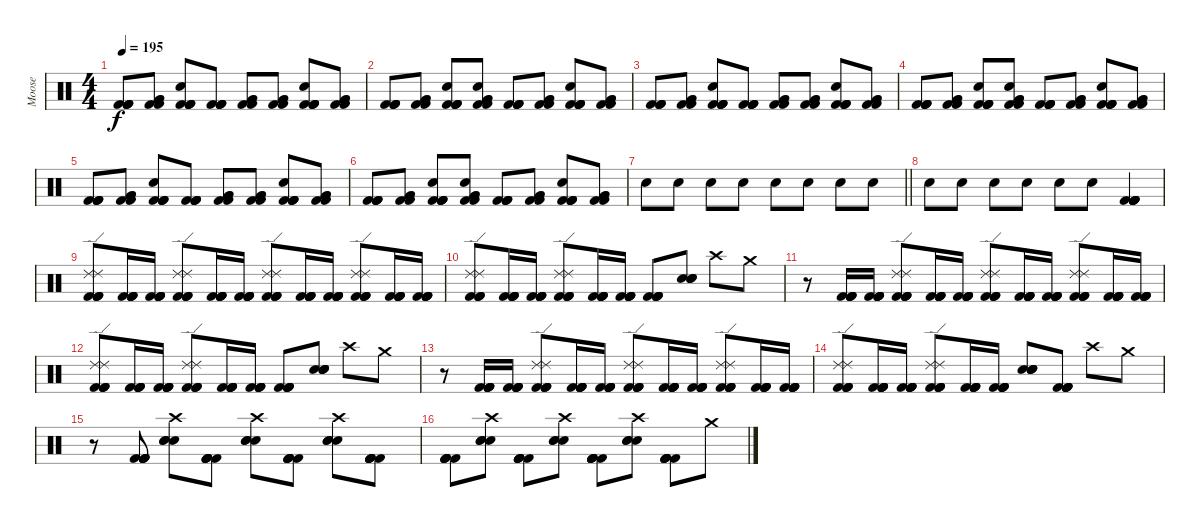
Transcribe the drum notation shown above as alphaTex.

\track ("Moose" "Moose") {instrument percussion}
\staff {score}
\articulation defaults
\ts (4 4)
\tempo 195
\clef neutral
\ks c
("Kick (hit) 2" "Kick (hit) 2" "Kick (hit) 2" "Kick (hit) 2").8{dy f} ("Kick (hit) 2" "Kick (hit) 2" "Very Low Tom (hit)" "Very Low Tom (hit)").8 ("Kick (hit) 2" "Kick (hit) 2" "Kick (hit) 2" "Kick (hit) 2" "Hand Clap (hit)").8 ("Kick (hit) 2" "Kick (hit) 2" "Kick (hit) 2" "Kick (hit) 2").8 ("Kick (hit) 2" "Kick (hit) 2" "Very Low Tom (hit)" "Very Low Tom (hit)").8 ("Kick (hit) 2" "Kick (hit) 2" "Very Low Tom (hit)" "Very Low Tom (hit)").8 ("Kick (hit) 2" "Kick (hit) 2" "Kick (hit) 2" "Kick (hit) 2" "Hand Clap (hit)").8 ("Kick (hit) 2" "Kick (hit) 2" "Very Low Tom (hit)" "Very Low Tom (hit)").8 |
("Kick (hit) 2" "Kick (hit) 2" "Kick (hit) 2" "Kick (hit) 2").8 ("Kick (hit) 2" "Kick (hit) 2" "Very Low Tom (hit)" "Very Low Tom (hit)").8 ("Kick (hit) 2" "Kick (hit) 2" "Kick (hit) 2" "Kick (hit) 2" "Hand Clap (hit)").8 ("Kick (hit) 2" "Kick (hit) 2" "Very Low Tom (hit)" "Very Low Tom (hit)" "Hand Clap (hit)").8 ("Kick (hit) 2" "Kick (hit) 2" "Kick (hit) 2" "Kick (hit) 2").8 ("Kick (hit) 2" "Kick (hit) 2" "Very Low Tom (hit)" "Very Low Tom (hit)").8 ("Kick (hit) 2" "Kick (hit) 2" "Kick (hit) 2" "Kick (hit) 2" "Hand Clap (hit)").8 ("Kick (hit) 2" "Kick (hit) 2" "Very Low Tom (hit)" "Very Low Tom (hit)").8 |
("Kick (hit) 2" "Kick (hit) 2" "Kick (hit) 2" "Kick (hit) 2").8 ("Kick (hit) 2" "Kick (hit) 2" "Very Low Tom (hit)" "Very Low Tom (hit)").8 ("Kick (hit) 2" "Kick (hit) 2" "Kick (hit) 2" "Kick (hit) 2" "Hand Clap (hit)").8 ("Kick (hit) 2" "Kick (hit) 2" "Kick (hit) 2" "Kick (hit) 2").8 ("Kick (hit) 2" "Kick (hit) 2" "Very Low Tom (hit)" "Very Low Tom (hit)").8 ("Kick (hit) 2" "Kick (hit) 2" "Very Low Tom (hit)" "Very Low Tom (hit)").8 ("Kick (hit) 2" "Kick (hit) 2" "Kick (hit) 2" "Kick (hit) 2" "Hand Clap (hit)").8 ("Kick (hit) 2" "Kick (hit) 2" "Very Low Tom (hit)" "Very Low Tom (hit)").8 |
("Kick (hit) 2" "Kick (hit) 2" "Kick (hit) 2" "Kick (hit) 2").8 ("Kick (hit) 2" "Kick (hit) 2" "Very Low Tom (hit)" "Very Low Tom (hit)").8 ("Kick (hit) 2" "Kick (hit) 2" "Kick (hit) 2" "Kick (hit) 2" "Hand Clap (hit)").8 ("Kick (hit) 2" "Kick (hit) 2" "Very Low Tom (hit)" "Very Low Tom (hit)" "Hand Clap (hit)").8 ("Kick (hit) 2" "Kick (hit) 2" "Kick (hit) 2" "Kick (hit) 2").8 ("Kick (hit) 2" "Kick (hit) 2" "Very Low Tom (hit)" "Very Low Tom (hit)").8 ("Kick (hit) 2" "Kick (hit) 2" "Kick (hit) 2" "Kick (hit) 2" "Hand Clap (hit)").8 ("Kick (hit) 2" "Kick (hit) 2" "Very Low Tom (hit)" "Very Low Tom (hit)").8 |
("Kick (hit) 2" "Kick (hit) 2" "Kick (hit) 2" "Kick (hit) 2").8 ("Kick (hit) 2" "Kick (hit) 2" "Very Low Tom (hit)" "Very Low Tom (hit)").8 ("Kick (hit) 2" "Kick (hit) 2" "Kick (hit) 2" "Kick (hit) 2" "Hand Clap (hit)").8 ("Kick (hit) 2" "Kick (hit) 2" "Kick (hit) 2" "Kick (hit) 2").8 ("Kick (hit) 2" "Kick (hit) 2" "Very Low Tom (hit)" "Very Low Tom (hit)").8 ("Kick (hit) 2" "Kick (hit) 2" "Very Low Tom (hit)" "Very Low Tom (hit)").8 ("Kick (hit) 2" "Kick (hit) 2" "Kick (hit) 2" "Kick (hit) 2" "Hand Clap (hit)").8 ("Kick (hit) 2" "Kick (hit) 2" "Very Low Tom (hit)" "Very Low Tom (hit)").8 |
("Kick (hit) 2" "Kick (hit) 2" "Kick (hit) 2" "Kick (hit) 2").8 ("Kick (hit) 2" "Kick (hit) 2" "Very Low Tom (hit)" "Very Low Tom (hit)").8 ("Kick (hit) 2" "Kick (hit) 2" "Kick (hit) 2" "Kick (hit) 2" "Hand Clap (hit)").8 ("Kick (hit) 2" "Kick (hit) 2" "Very Low Tom (hit)" "Very Low Tom (hit)" "Hand Clap (hit)").8 ("Kick (hit) 2" "Kick (hit) 2" "Kick (hit) 2" "Kick (hit) 2").8 ("Kick (hit) 2" "Kick (hit) 2" "Very Low Tom (hit)" "Very Low Tom (hit)").8 ("Kick (hit) 2" "Kick (hit) 2" "Kick (hit) 2" "Kick (hit) 2" "Hand Clap (hit)").8 ("Kick (hit) 2" "Kick (hit) 2" "Very Low Tom (hit)" "Very Low Tom (hit)").8 |
\barLineRight lightlight "Electric Snare (hit)".8 "Electric Snare (hit)".8 "Electric Snare (hit)".8 "Electric Snare (hit)".8 "Electric Snare (hit)".8 "Electric Snare (hit)".8 "Electric Snare (hit)".8 "Electric Snare (hit)".8
|
"Electric Snare (hit)".8 "Electric Snare (hit)".8 "Electric Snare (hit)".8 "Electric Snare (hit)".8 "Electric Snare (hit)".8 "Electric Snare (hit)".8 ("Kick (hit) 2" "Kick (hit) 2" "Kick (hit) 2" "Kick (hit) 2" "Kick (hit) 2" "Kick (hit) 2").4 |
("Kick (hit) 2" "Kick (hit) 2" "Kick (hit) 2" "Kick (hit) 2" "Ride (edge) 2" "Ride (edge) 2").8 ("Kick (hit) 2" "Kick (hit) 2" "Kick (hit) 2" "Kick (hit) 2" "Kick (hit) 2").16 ("Kick (hit) 2" "Kick (hit) 2" "Kick (hit) 2" "Kick (hit) 2" "Kick (hit) 2").16 ("Kick (hit) 2" "Kick (hit) 2" "Kick (hit) 2" "Kick (hit) 2" "Ride (edge) 2" "Ride (edge) 2").8 ("Kick (hit) 2" "Kick (hit) 2" "Kick (hit) 2" "Kick (hit) 2" "Kick (hit) 2").16 ("Kick (hit) 2" "Kick (hit) 2" "Kick (hit) 2" "Kick (hit) 2" "Kick (hit) 2").16 ("Kick (hit) 2" "Kick (hit) 2" "Kick (hit) 2" "Kick (hit) 2" "Ride (edge) 2" "Ride (edge) 2").8 ("Kick (hit) 2" "Kick (hit) 2" "Kick (hit) 2" "Kick (hit) 2" "Kick (hit) 2").16 ("Kick (hit) 2" "Kick (hit) 2" "Kick (hit) 2" "Kick (hit) 2" "Kick (hit) 2").16 ("Kick (hit) 2" "Kick (hit) 2" "Kick (hit) 2" "Kick (hit) 2" "Ride (edge) 2" "Ride (edge) 2").8 ("Kick (hit) 2" "Kick (hit) 2" "Kick (hit) 2" "Kick (hit) 2" "Kick (hit) 2").16 ("Kick (hit) 2" "Kick (hit) 2" "Kick (hit) 2" "Kick (hit) 2" "Kick (hit) 2").16 |
("Kick (hit) 2" "Kick (hit) 2" "Kick (hit) 2" "Kick (hit) 2" "Ride (edge) 2" "Ride (edge) 2").8 ("Kick (hit) 2" "Kick (hit) 2" "Kick (hit) 2" "Kick (hit) 2" "Kick (hit) 2").16 ("Kick (hit) 2" "Kick (hit) 2" "Kick (hit) 2" "Kick (hit) 2" "Kick (hit) 2").16 ("Kick (hit) 2" "Kick (hit) 2" "Kick (hit) 2" "Kick (hit) 2" "Ride (edge) 2" "Ride (edge) 2").8 ("Kick (hit) 2" "Kick (hit) 2" "Kick (hit) 2" "Kick (hit) 2" "Kick (hit) 2").16 ("Kick (hit) 2" "Kick (hit) 2" "Kick (hit) 2" "Kick (hit) 2" "Kick (hit) 2").16 ("Kick (hit) 2" "Kick (hit) 2" "Kick (hit) 2" "Kick (hit) 2" "Kick (hit) 2").8 ("Electric Snare (hit)" "Electric Snare (hit)" "Electric Snare (hit)" "Electric Snare (hit)").8 "Crash high (hit)".8 "Crash medium (hit)".8 |
r.8 ("Kick (hit) 2" "Kick (hit) 2" "Kick (hit) 2" "Kick (hit) 2" "Kick (hit) 2").16 ("Kick (hit) 2" "Kick (hit) 2" "Kick (hit) 2" "Kick (hit) 2" "Kick (hit) 2").16 ("Kick (hit) 2" "Kick (hit) 2" "Kick (hit) 2" "Kick (hit) 2" "Ride (edge) 2" "Ride (edge) 2").8 ("Kick (hit) 2" "Kick (hit) 2" "Kick (hit) 2" "Kick (hit) 2" "Kick (hit) 2").16 ("Kick (hit) 2" "Kick (hit) 2" "Kick (hit) 2" "Kick (hit) 2" "Kick (hit) 2").16 ("Kick (hit) 2" "Kick (hit) 2" "Kick (hit) 2" "Kick (hit) 2" "Ride (edge) 2" "Ride (edge) 2").8 ("Kick (hit) 2" "Kick (hit) 2" "Kick (hit) 2" "Kick (hit) 2" "Kick (hit) 2").16 ("Kick (hit) 2" "Kick (hit) 2" "Kick (hit) 2" "Kick (hit) 2" "Kick (hit) 2").16 ("Kick (hit) 2" "Kick (hit) 2" "Kick (hit) 2" "Kick (hit) 2" "Ride (edge) 2" "Ride (edge) 2").8 ("Kick (hit) 2" "Kick (hit) 2" "Kick (hit) 2" "Kick (hit) 2" "Kick (hit) 2").16 ("Kick (hit) 2" "Kick (hit) 2" "Kick (hit) 2" "Kick (hit) 2" "Kick (hit) 2").16 |
("Kick (hit) 2" "Kick (hit) 2" "Kick (hit) 2" "Kick (hit) 2" "Ride (edge) 2" "Ride (edge) 2").8 ("Kick (hit) 2" "Kick (hit) 2" "Kick (hit) 2" "Kick (hit) 2" "Kick (hit) 2").16 ("Kick (hit) 2" "Kick (hit) 2" "Kick (hit) 2" "Kick (hit) 2" "Kick (hit) 2").16 ("Kick (hit) 2" "Kick (hit) 2" "Kick (hit) 2" "Kick (hit) 2" "Ride (edge) 2" "Ride (edge) 2").8 ("Kick (hit) 2" "Kick (hit) 2" "Kick (hit) 2" "Kick (hit) 2" "Kick (hit) 2").16 ("Kick (hit) 2" "Kick (hit) 2" "Kick (hit) 2" "Kick (hit) 2" "Kick (hit) 2").16 ("Kick (hit) 2" "Kick (hit) 2" "Kick (hit) 2" "Kick (hit) 2" "Kick (hit) 2").8 ("Electric Snare (hit)" "Electric Snare (hit)" "Electric Snare (hit)" "Electric Snare (hit)").8 "Crash high (hit)".8 "Crash medium (hit)".8 |
r.8 ("Kick (hit) 2" "Kick (hit) 2" "Kick (hit) 2" "Kick (hit) 2" "Kick (hit) 2").16 ("Kick (hit) 2" "Kick (hit) 2" "Kick (hit) 2" "Kick (hit) 2" "Kick (hit) 2").16 ("Kick (hit) 2" "Kick (hit) 2" "Kick (hit) 2" "Kick (hit) 2" "Ride (edge) 2" "Ride (edge) 2").8 ("Kick (hit) 2" "Kick (hit) 2" "Kick (hit) 2" "Kick (hit) 2" "Kick (hit) 2").16 ("Kick (hit) 2" "Kick (hit) 2" "Kick (hit) 2" "Kick (hit) 2" "Kick (hit) 2").16 ("Kick (hit) 2" "Kick (hit) 2" "Kick (hit) 2" "Kick (hit) 2" "Ride (edge) 2" "Ride (edge) 2").8 ("Kick (hit) 2" "Kick (hit) 2" "Kick (hit) 2" "Kick (hit) 2" "Kick (hit) 2").16 ("Kick (hit) 2" "Kick (hit) 2" "Kick (hit) 2" "Kick (hit) 2" "Kick (hit) 2").16 ("Kick (hit) 2" "Kick (hit) 2" "Kick (hit) 2" "Kick (hit) 2" "Ride (edge) 2" "Ride (edge) 2").8 ("Kick (hit) 2" "Kick (hit) 2" "Kick (hit) 2" "Kick (hit) 2" "Kick (hit) 2").16 ("Kick (hit) 2" "Kick (hit) 2" "Kick (hit) 2" "Kick (hit) 2" "Kick (hit) 2").16 |
("Kick (hit) 2" "Kick (hit) 2" "Kick (hit) 2" "Kick (hit) 2" "Ride (edge) 2" "Ride (edge) 2").8 ("Kick (hit) 2" "Kick (hit) 2" "Kick (hit) 2" "Kick (hit) 2" "Kick (hit) 2").16 ("Kick (hit) 2" "Kick (hit) 2" "Kick (hit) 2" "Kick (hit) 2" "Kick (hit) 2").16 ("Kick (hit) 2" "Kick (hit) 2" "Kick (hit) 2" "Kick (hit) 2" "Ride (edge) 2" "Ride (edge) 2").8 ("Kick (hit) 2" "Kick (hit) 2" "Kick (hit) 2" "Kick (hit) 2" "Kick (hit) 2").16 ("Kick (hit) 2" "Kick (hit) 2" "Kick (hit) 2" "Kick (hit) 2" "Kick (hit) 2").16 ("Electric Snare (hit)" "Electric Snare (hit)" "Electric Snare (hit)" "Electric Snare (hit)").8 ("Kick (hit) 2" "Kick (hit) 2" "Kick (hit) 2" "Kick (hit) 2" "Kick (hit) 2").8 "Crash high (hit)".8 "Crash medium (hit)".8 |
r.8 ("Kick (hit) 2" "Kick (hit) 2" "Kick (hit) 2" "Kick (hit) 2" "Kick (hit) 2").8 ("Electric Snare (hit)" "Electric Snare (hit)" "Electric Snare (hit)" "Crash high (hit)").8 ("Kick (hit) 2" "Kick (hit) 2" "Kick (hit) 2" "Kick (hit) 2" "Kick (hit) 2").8 ("Electric Snare (hit)" "Electric Snare (hit)" "Electric Snare (hit)" "Crash high (hit)").8 ("Kick (hit) 2" "Kick (hit) 2" "Kick (hit) 2" "Kick (hit) 2" "Kick (hit) 2").8 ("Electric Snare (hit)" "Electric Snare (hit)" "Electric Snare (hit)" "Crash high (hit)").8 ("Kick (hit) 2" "Kick (hit) 2" "Kick (hit) 2" "Kick (hit) 2" "Kick (hit) 2").8 |
("Kick (hit) 2" "Kick (hit) 2" "Kick (hit) 2" "Kick (hit) 2" "Kick (hit) 2").8 ("Electric Snare (hit)" "Electric Snare (hit)" "Electric Snare (hit)" "Crash high (hit)").8 ("Kick (hit) 2" "Kick (hit) 2" "Kick (hit) 2" "Kick (hit) 2" "Kick (hit) 2").8 ("Electric Snare (hit)" "Electric Snare (hit)" "Electric Snare (hit)" "Crash high (hit)").8 ("Kick (hit) 2" "Kick (hit) 2" "Kick (hit) 2" "Kick (hit) 2" "Kick (hit) 2").8 ("Electric Snare (hit)" "Electric Snare (hit)" "Electric Snare (hit)" "Crash high (hit)").8 ("Kick (hit) 2" "Kick (hit) 2" "Kick (hit) 2" "Kick (hit) 2" "Kick (hit) 2").8 "Crash medium (hit)".8
